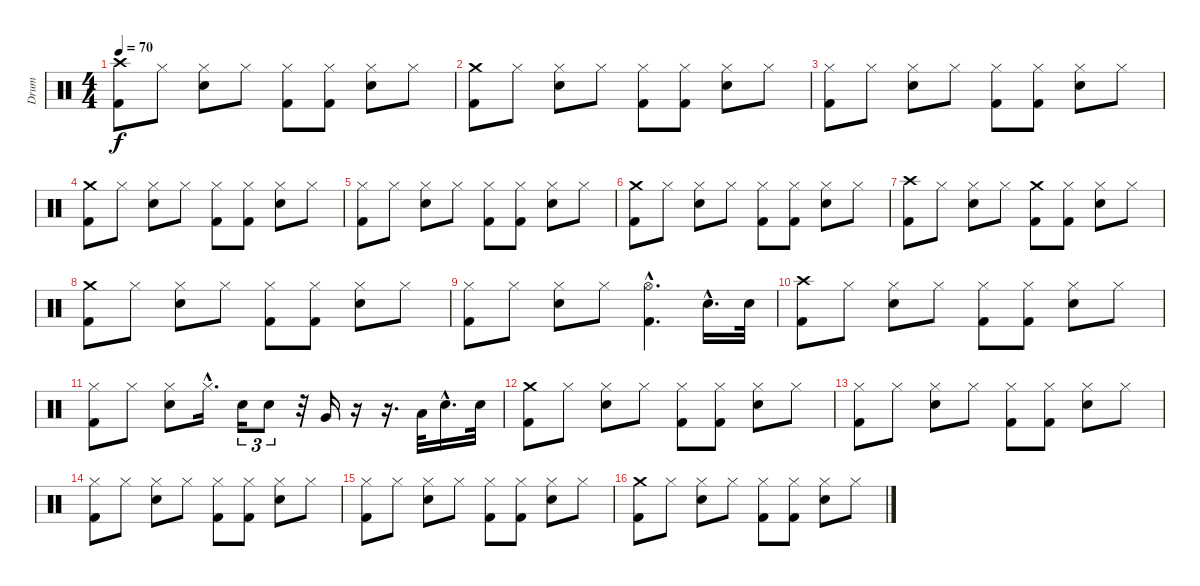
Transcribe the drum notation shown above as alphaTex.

\track ("Drum" "Drum") {instrument percussion}
\staff {score}
\articulation defaults
\ts (4 4)
\tempo 70
\clef neutral
\ks c
("Crash high (hit)" "Kick (hit) 2").8{dy f} "Hi-Hat (closed)".8 ("Hi-Hat (closed)" "Snare (hit) 2").8 "Hi-Hat (closed)".8 ("Hi-Hat (closed)" "Kick (hit) 2").8 ("Hi-Hat (closed)" "Kick (hit) 2").8 ("Hi-Hat (closed)" "Snare (hit) 2").8 "Hi-Hat (closed)".8 |
("Crash medium (hit)" "Kick (hit) 2").8 "Hi-Hat (closed)".8 ("Hi-Hat (closed)" "Snare (hit) 2").8 "Hi-Hat (closed)".8 ("Hi-Hat (closed)" "Kick (hit) 2").8 ("Hi-Hat (closed)" "Kick (hit) 2").8 ("Hi-Hat (closed)" "Snare (hit) 2").8 "Hi-Hat (closed)".8 |
("Hi-Hat (closed)" "Kick (hit) 2").8 "Hi-Hat (closed)".8 ("Hi-Hat (closed)" "Snare (hit) 2").8 "Hi-Hat (closed)".8 ("Hi-Hat (closed)" "Kick (hit) 2").8 ("Hi-Hat (closed)" "Kick (hit) 2").8 ("Hi-Hat (closed)" "Snare (hit) 2").8 "Hi-Hat (closed)".8 |
("Crash medium (hit)" "Kick (hit) 2").8 "Hi-Hat (closed)".8 ("Hi-Hat (closed)" "Snare (hit) 2").8 "Hi-Hat (closed)".8 ("Hi-Hat (closed)" "Kick (hit) 2").8 ("Hi-Hat (closed)" "Kick (hit) 2").8 ("Hi-Hat (closed)" "Snare (hit) 2").8 "Hi-Hat (closed)".8 |
("Hi-Hat (closed)" "Kick (hit) 2").8 "Hi-Hat (closed)".8 ("Hi-Hat (closed)" "Snare (hit) 2").8 "Hi-Hat (closed)".8 ("Hi-Hat (closed)" "Kick (hit) 2").8 ("Hi-Hat (closed)" "Kick (hit) 2").8 ("Hi-Hat (closed)" "Snare (hit) 2").8 "Hi-Hat (closed)".8 |
("Crash medium (hit)" "Kick (hit) 2").8 "Hi-Hat (closed)".8 ("Hi-Hat (closed)" "Snare (hit) 2").8 "Hi-Hat (closed)".8 ("Hi-Hat (closed)" "Kick (hit) 2").8 ("Hi-Hat (closed)" "Kick (hit) 2").8 ("Hi-Hat (closed)" "Snare (hit) 2").8 "Hi-Hat (closed)".8 |
("Crash high (hit)" "Kick (hit) 2").8 "Hi-Hat (closed)".8 ("Hi-Hat (closed)" "Snare (hit) 2").8 "Hi-Hat (closed)".8 ("Crash medium (hit)" "Kick (hit) 2").8 ("Hi-Hat (closed)" "Kick (hit) 2").8 ("Hi-Hat (closed)" "Snare (hit) 2").8 "Hi-Hat (closed)".8 |
("Crash medium (hit)" "Kick (hit) 2").8 "Hi-Hat (closed)".8 ("Hi-Hat (closed)" "Snare (hit) 2").8 "Hi-Hat (closed)".8 ("Hi-Hat (closed)" "Kick (hit) 2").8 ("Hi-Hat (closed)" "Kick (hit) 2").8 ("Hi-Hat (closed)" "Snare (hit) 2").8 "Hi-Hat (closed)".8 |
("Hi-Hat (closed)" "Kick (hit) 2").8 "Hi-Hat (closed)".8 ("Hi-Hat (closed)" "Snare (hit) 2").8 "Hi-Hat (closed)".8 ("Hi-Hat (open)"{hac} "Kick (hit) 2"{hac}).4{d} "Snare (hit) 2"{hac}.16{d} "Snare (hit) 2".32 |
("Crash high (hit)" "Kick (hit) 2").8 "Hi-Hat (closed)".8 ("Hi-Hat (closed)" "Snare (hit) 2").8 "Hi-Hat (closed)".8 ("Hi-Hat (closed)" "Kick (hit) 2").8 ("Hi-Hat (closed)" "Kick (hit) 2").8 ("Hi-Hat (closed)" "Snare (hit) 2").8 "Hi-Hat (closed)".8 |
("Hi-Hat (closed)" "Kick (hit) 2").8 "Hi-Hat (closed)".8 ("Hi-Hat (closed)" "Snare (hit) 2").8 "Hi-Hat (closed)"{hac}.16{d} "Snare (hit) 2".16{tu (3 2)} "Snare (hit) 2".8{tu (3 2)} r.32 "Very Low Tom (hit)".16 r.16 r.16{d} "Low Floor Tom (hit)".32 "Snare (hit) 2"{hac}.16{d} "Snare (hit) 2".32 |
("Crash medium (hit)" "Kick (hit) 2").8 "Hi-Hat (closed)".8 ("Hi-Hat (closed)" "Snare (hit) 2").8 "Hi-Hat (closed)".8 ("Hi-Hat (closed)" "Kick (hit) 2").8 ("Hi-Hat (closed)" "Kick (hit) 2").8 ("Hi-Hat (closed)" "Snare (hit) 2").8 "Hi-Hat (closed)".8 |
("Hi-Hat (closed)" "Kick (hit) 2").8 "Hi-Hat (closed)".8 ("Hi-Hat (closed)" "Snare (hit) 2").8 "Hi-Hat (closed)".8 ("Hi-Hat (closed)" "Kick (hit) 2").8 ("Hi-Hat (closed)" "Kick (hit) 2").8 ("Hi-Hat (closed)" "Snare (hit) 2").8 "Hi-Hat (closed)".8 |
("Hi-Hat (closed)" "Kick (hit) 2").8 "Hi-Hat (closed)".8 ("Hi-Hat (closed)" "Snare (hit) 2").8 "Hi-Hat (closed)".8 ("Hi-Hat (closed)" "Kick (hit) 2").8 ("Hi-Hat (closed)" "Kick (hit) 2").8 ("Hi-Hat (closed)" "Snare (hit) 2").8 "Hi-Hat (closed)".8 |
("Hi-Hat (closed)" "Kick (hit) 2").8 "Hi-Hat (closed)".8 ("Hi-Hat (closed)" "Snare (hit) 2").8 "Hi-Hat (closed)".8 ("Hi-Hat (closed)" "Kick (hit) 2").8 ("Hi-Hat (closed)" "Kick (hit) 2").8 ("Hi-Hat (closed)" "Snare (hit) 2").8 "Hi-Hat (closed)".8 |
("Crash medium (hit)" "Kick (hit) 2").8 "Hi-Hat (closed)".8 ("Hi-Hat (closed)" "Snare (hit) 2").8 "Hi-Hat (closed)".8 ("Hi-Hat (closed)" "Kick (hit) 2").8 ("Hi-Hat (closed)" "Kick (hit) 2").8 ("Hi-Hat (closed)" "Snare (hit) 2").8 "Hi-Hat (closed)".8
